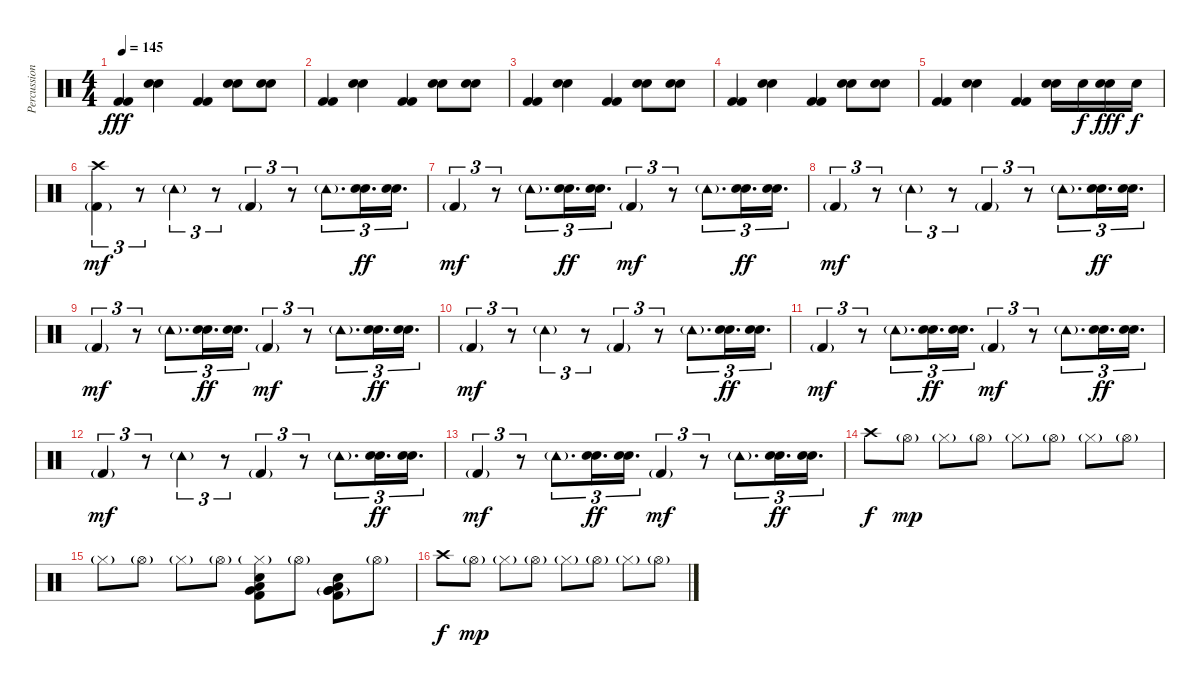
\track ("Percussion ( Keyboard )" "Percussion") {instrument percussion bank 4}
\staff {score}
\articulation defaults
\ts (4 4)
\tempo 145
\clef neutral
\ks c
("Kick (hit) 2" "Kick (hit) 2").4{dy fff} ("Electric Snare (hit)" "Hand Clap (hit)").4 ("Kick (hit) 2" "Kick (hit) 2").4 ("Electric Snare (hit)" "Hand Clap (hit)").8 ("Electric Snare (hit)" "Hand Clap (hit)").8 |
("Kick (hit) 2" "Kick (hit) 2").4 ("Electric Snare (hit)" "Hand Clap (hit)").4 ("Kick (hit) 2" "Kick (hit) 2").4 ("Electric Snare (hit)" "Hand Clap (hit)").8 ("Electric Snare (hit)" "Hand Clap (hit)").8 |
("Kick (hit) 2" "Kick (hit) 2").4 ("Electric Snare (hit)" "Hand Clap (hit)").4 ("Kick (hit) 2" "Kick (hit) 2").4 ("Electric Snare (hit)" "Hand Clap (hit)").8 ("Electric Snare (hit)" "Hand Clap (hit)").8 |
("Kick (hit) 2" "Kick (hit) 2").4 ("Electric Snare (hit)" "Hand Clap (hit)").4 ("Kick (hit) 2" "Kick (hit) 2").4 ("Electric Snare (hit)" "Hand Clap (hit)").8 ("Electric Snare (hit)" "Hand Clap (hit)").8 |
("Kick (hit) 2" "Kick (hit) 2").4 ("Electric Snare (hit)" "Hand Clap (hit)").4 ("Kick (hit) 2" "Kick (hit) 2").4 ("Electric Snare (hit)" "Hand Clap (hit)").16 "Electric Snare (hit)".16{dy f} ("Electric Snare (hit)" "Hand Clap (hit)").16{dy fff} "Electric Snare (hit)".16{dy f} |
("Crash high (hit)" "Kick (hit) 2"{g}).4{tu (3 2) dy mf} r.8{tu (3 2)} "Tambourine (hit)"{g}.4{tu (3 2)} r.8{tu (3 2)} "Kick (hit) 2"{g}.4{tu (3 2)} r.8{tu (3 2)} "Tambourine (hit)"{g}.8{d tu (3 2)} ("Snare (hit) 2" "Electric Snare (hit)").16{d tu (3 2) dy ff} ("Snare (hit) 2" "Electric Snare (hit)").16{d tu (3 2)} |
"Kick (hit) 2"{g}.4{tu (3 2) dy mf} r.8{tu (3 2)} "Tambourine (hit)"{g}.8{d tu (3 2)} ("Snare (hit) 2" "Electric Snare (hit)").16{d tu (3 2) dy ff} ("Snare (hit) 2" "Electric Snare (hit)").16{d tu (3 2)} "Kick (hit) 2"{g}.4{tu (3 2) dy mf} r.8{tu (3 2)} "Tambourine (hit)"{g}.8{d tu (3 2)} ("Snare (hit) 2" "Electric Snare (hit)").16{d tu (3 2) dy ff} ("Snare (hit) 2" "Electric Snare (hit)").16{d tu (3 2)} |
"Kick (hit) 2"{g}.4{tu (3 2) dy mf} r.8{tu (3 2)} "Tambourine (hit)"{g}.4{tu (3 2)} r.8{tu (3 2)} "Kick (hit) 2"{g}.4{tu (3 2)} r.8{tu (3 2)} "Tambourine (hit)"{g}.8{d tu (3 2)} ("Snare (hit) 2" "Electric Snare (hit)").16{d tu (3 2) dy ff} ("Snare (hit) 2" "Electric Snare (hit)").16{d tu (3 2)} |
"Kick (hit) 2"{g}.4{tu (3 2) dy mf} r.8{tu (3 2)} "Tambourine (hit)"{g}.8{d tu (3 2)} ("Snare (hit) 2" "Electric Snare (hit)").16{d tu (3 2) dy ff} ("Snare (hit) 2" "Electric Snare (hit)").16{d tu (3 2)} "Kick (hit) 2"{g}.4{tu (3 2) dy mf} r.8{tu (3 2)} "Tambourine (hit)"{g}.8{d tu (3 2)} ("Snare (hit) 2" "Electric Snare (hit)").16{d tu (3 2) dy ff} ("Snare (hit) 2" "Electric Snare (hit)").16{d tu (3 2)} |
"Kick (hit) 2"{g}.4{tu (3 2) dy mf} r.8{tu (3 2)} "Tambourine (hit)"{g}.4{tu (3 2)} r.8{tu (3 2)} "Kick (hit) 2"{g}.4{tu (3 2)} r.8{tu (3 2)} "Tambourine (hit)"{g}.8{d tu (3 2)} ("Snare (hit) 2" "Electric Snare (hit)").16{d tu (3 2) dy ff} ("Snare (hit) 2" "Electric Snare (hit)").16{d tu (3 2)} |
"Kick (hit) 2"{g}.4{tu (3 2) dy mf} r.8{tu (3 2)} "Tambourine (hit)"{g}.8{d tu (3 2)} ("Snare (hit) 2" "Electric Snare (hit)").16{d tu (3 2) dy ff} ("Snare (hit) 2" "Electric Snare (hit)").16{d tu (3 2)} "Kick (hit) 2"{g}.4{tu (3 2) dy mf} r.8{tu (3 2)} "Tambourine (hit)"{g}.8{d tu (3 2)} ("Snare (hit) 2" "Electric Snare (hit)").16{d tu (3 2) dy ff} ("Snare (hit) 2" "Electric Snare (hit)").16{d tu (3 2)} |
"Kick (hit) 2"{g}.4{tu (3 2) dy mf} r.8{tu (3 2)} "Tambourine (hit)"{g}.4{tu (3 2)} r.8{tu (3 2)} "Kick (hit) 2"{g}.4{tu (3 2)} r.8{tu (3 2)} "Tambourine (hit)"{g}.8{d tu (3 2)} ("Snare (hit) 2" "Electric Snare (hit)").16{d tu (3 2) dy ff} ("Snare (hit) 2" "Electric Snare (hit)").16{d tu (3 2)} |
"Kick (hit) 2"{g}.4{tu (3 2) dy mf} r.8{tu (3 2)} "Tambourine (hit)"{g}.8{d tu (3 2)} ("Snare (hit) 2" "Electric Snare (hit)").16{d tu (3 2) dy ff} ("Snare (hit) 2" "Electric Snare (hit)").16{d tu (3 2)} "Kick (hit) 2"{g}.4{tu (3 2) dy mf} r.8{tu (3 2)} "Tambourine (hit)"{g}.8{d tu (3 2)} ("Snare (hit) 2" "Electric Snare (hit)").16{d tu (3 2) dy ff} ("Snare (hit) 2" "Electric Snare (hit)").16{d tu (3 2)} |
"Crash high (hit)".8{dy f} "Hi-Hat (open)"{g}.8{dy mp} "Hi-Hat (closed)"{g}.8 "Hi-Hat (open)"{g}.8 "Hi-Hat (closed)"{g}.8 "Hi-Hat (open)"{g}.8 "Hi-Hat (closed)"{g}.8 "Hi-Hat (open)"{g}.8 |
"Hi-Hat (closed)"{g}.8 "Hi-Hat (open)"{g}.8 "Hi-Hat (closed)"{g}.8 "Hi-Hat (open)"{g}.8 ("Kick (hit) 2" "Very Low Tom (hit)" "Hi-Hat (closed)"{g} "Electric Snare (hit)" "Low Floor Tom (hit)").8 "Hi-Hat (open)"{g}.8 ("Very Low Tom (hit)" "Kick (hit) 2" "Very Low Tom (hit)"{g} "Electric Snare (hit)" "Low Floor Tom (hit)").8 "Hi-Hat (open)"{g}.8 |
"Crash high (hit)".8{dy f} "Hi-Hat (open)"{g}.8{dy mp} "Hi-Hat (closed)"{g}.8 "Hi-Hat (open)"{g}.8 "Hi-Hat (closed)"{g}.8 "Hi-Hat (open)"{g}.8 "Hi-Hat (closed)"{g}.8 "Hi-Hat (open)"{g}.8
